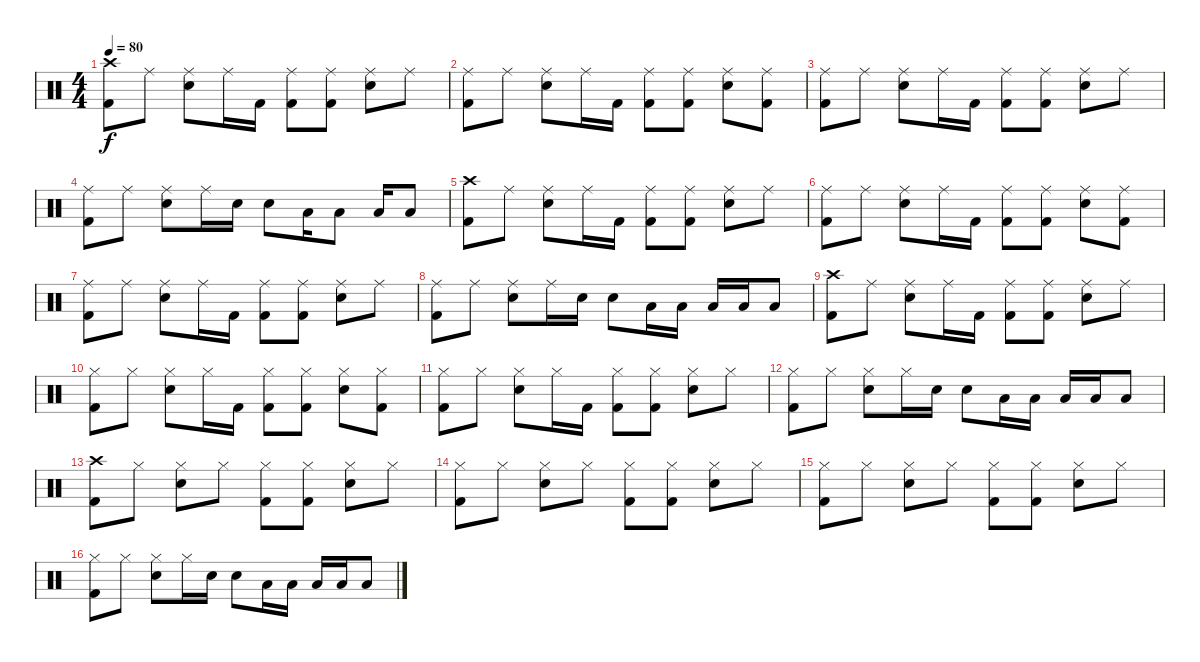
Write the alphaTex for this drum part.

\track "" {mute instrument percussion}
\staff {score}
\articulation defaults
\ts (4 4)
\tempo 80
\clef neutral
\ks c
("Kick (hit) 2" "Crash high (hit)").8{dy f} "Ride (middle)".8 ("Snare (hit) 2" "Ride (middle)").8 "Ride (middle)".16 "Kick (hit) 2".16 ("Kick (hit) 2" "Ride (middle)").8 ("Kick (hit) 2" "Ride (middle)").8 ("Snare (hit) 2" "Ride (middle)").8 "Ride (middle)".8 |
("Kick (hit) 2" "Ride (middle)").8 "Ride (middle)".8 ("Snare (hit) 2" "Ride (middle)").8 "Ride (middle)".16 "Kick (hit) 2".16 ("Kick (hit) 2" "Ride (middle)").8 ("Kick (hit) 2" "Ride (middle)").8 ("Snare (hit) 2" "Ride (middle)").8 ("Kick (hit) 2" "Ride (middle)").8 |
("Kick (hit) 2" "Ride (middle)").8 "Ride (middle)".8 ("Snare (hit) 2" "Ride (middle)").8 "Ride (middle)".16 "Kick (hit) 2".16 ("Kick (hit) 2" "Ride (middle)").8 ("Kick (hit) 2" "Ride (middle)").8 ("Snare (hit) 2" "Ride (middle)").8 "Ride (middle)".8 |
("Kick (hit) 2" "Ride (middle)").8 "Ride (middle)".8 ("Snare (hit) 2" "Ride (middle)").8 "Ride (middle)".16 "Snare (hit) 2".16 "Snare (hit) 2".8 "Low Tom (hit)".16 "Low Tom (hit)".8 "Low Tom (hit)".16 "Low Tom (hit)".8 |
("Kick (hit) 2" "Crash high (hit)").8 "Ride (middle)".8 ("Snare (hit) 2" "Ride (middle)").8 "Ride (middle)".16 "Kick (hit) 2".16 ("Kick (hit) 2" "Ride (middle)").8 ("Kick (hit) 2" "Ride (middle)").8 ("Snare (hit) 2" "Ride (middle)").8 "Ride (middle)".8 |
("Kick (hit) 2" "Ride (middle)").8 "Ride (middle)".8 ("Snare (hit) 2" "Ride (middle)").8 "Ride (middle)".16 "Kick (hit) 2".16 ("Kick (hit) 2" "Ride (middle)").8 ("Kick (hit) 2" "Ride (middle)").8 ("Snare (hit) 2" "Ride (middle)").8 ("Kick (hit) 2" "Ride (middle)").8 |
("Kick (hit) 2" "Ride (middle)").8 "Ride (middle)".8 ("Snare (hit) 2" "Ride (middle)").8 "Ride (middle)".16 "Kick (hit) 2".16 ("Kick (hit) 2" "Ride (middle)").8 ("Kick (hit) 2" "Ride (middle)").8 ("Snare (hit) 2" "Ride (middle)").8 "Ride (middle)".8 |
("Kick (hit) 2" "Ride (middle)").8 "Ride (middle)".8 ("Snare (hit) 2" "Ride (middle)").8 "Ride (middle)".16 "Snare (hit) 2".16 "Snare (hit) 2".8 "Low Tom (hit)".16 "Low Tom (hit)".16 "Low Tom (hit)".16 "Low Tom (hit)".16 "Low Floor Tom (hit)".8 |
("Kick (hit) 2" "Crash high (hit)").8 "Ride (middle)".8 ("Snare (hit) 2" "Ride (middle)").8 "Ride (middle)".16 "Kick (hit) 2".16 ("Kick (hit) 2" "Ride (middle)").8 ("Kick (hit) 2" "Ride (middle)").8 ("Snare (hit) 2" "Ride (middle)").8 "Ride (middle)".8 |
("Kick (hit) 2" "Hi-Hat (closed)").8 "Hi-Hat (closed)".8 ("Snare (hit) 2" "Hi-Hat (closed)").8 "Hi-Hat (closed)".16 "Kick (hit) 2".16 ("Kick (hit) 2" "Hi-Hat (closed)").8 ("Kick (hit) 2" "Hi-Hat (closed)").8 ("Snare (hit) 2" "Hi-Hat (closed)").8 ("Kick (hit) 2" "Hi-Hat (closed)").8 |
("Kick (hit) 2" "Hi-Hat (closed)").8 "Hi-Hat (closed)".8 ("Snare (hit) 2" "Hi-Hat (closed)").8 "Hi-Hat (closed)".16 "Kick (hit) 2".16 ("Kick (hit) 2" "Hi-Hat (closed)").8 ("Kick (hit) 2" "Hi-Hat (closed)").8 ("Snare (hit) 2" "Hi-Hat (closed)").8 "Hi-Hat (closed)".8 |
("Kick (hit) 2" "Hi-Hat (closed)").8 "Hi-Hat (closed)".8 ("Snare (hit) 2" "Hi-Hat (closed)").8 "Hi-Hat (closed)".16 "Snare (hit) 2".16 "Snare (hit) 2".8 "Low Tom (hit)".16 "Low Tom (hit)".16 "Low Tom (hit)".16 "Low Tom (hit)".16 "Low Floor Tom (hit)".8 |
("Kick (hit) 2" "Crash high (hit)").8 "Hi-Hat (closed)".8 ("Snare (hit) 2" "Hi-Hat (closed)").8 "Hi-Hat (closed)".8 ("Kick (hit) 2" "Hi-Hat (closed)").8 ("Kick (hit) 2" "Hi-Hat (closed)").8 ("Snare (hit) 2" "Hi-Hat (closed)").8 "Hi-Hat (closed)".8 |
("Kick (hit) 2" "Hi-Hat (closed)").8 "Hi-Hat (closed)".8 ("Snare (hit) 2" "Hi-Hat (closed)").8 "Hi-Hat (closed)".8 ("Kick (hit) 2" "Hi-Hat (closed)").8 ("Kick (hit) 2" "Hi-Hat (closed)").8 ("Snare (hit) 2" "Hi-Hat (closed)").8 "Hi-Hat (closed)".8 |
("Kick (hit) 2" "Hi-Hat (closed)").8 "Hi-Hat (closed)".8 ("Snare (hit) 2" "Hi-Hat (closed)").8 "Hi-Hat (closed)".8 ("Kick (hit) 2" "Hi-Hat (closed)").8 ("Kick (hit) 2" "Hi-Hat (closed)").8 ("Snare (hit) 2" "Hi-Hat (closed)").8 "Hi-Hat (closed)".8 |
("Kick (hit) 2" "Hi-Hat (closed)").8 "Hi-Hat (closed)".8 ("Snare (hit) 2" "Hi-Hat (closed)").8 "Hi-Hat (closed)".16 "Snare (hit) 2".16 "Snare (hit) 2".8 "Low Tom (hit)".16 "Low Tom (hit)".16 "Low Tom (hit)".16 "Low Tom (hit)".16 "Low Tom (hit)".8
